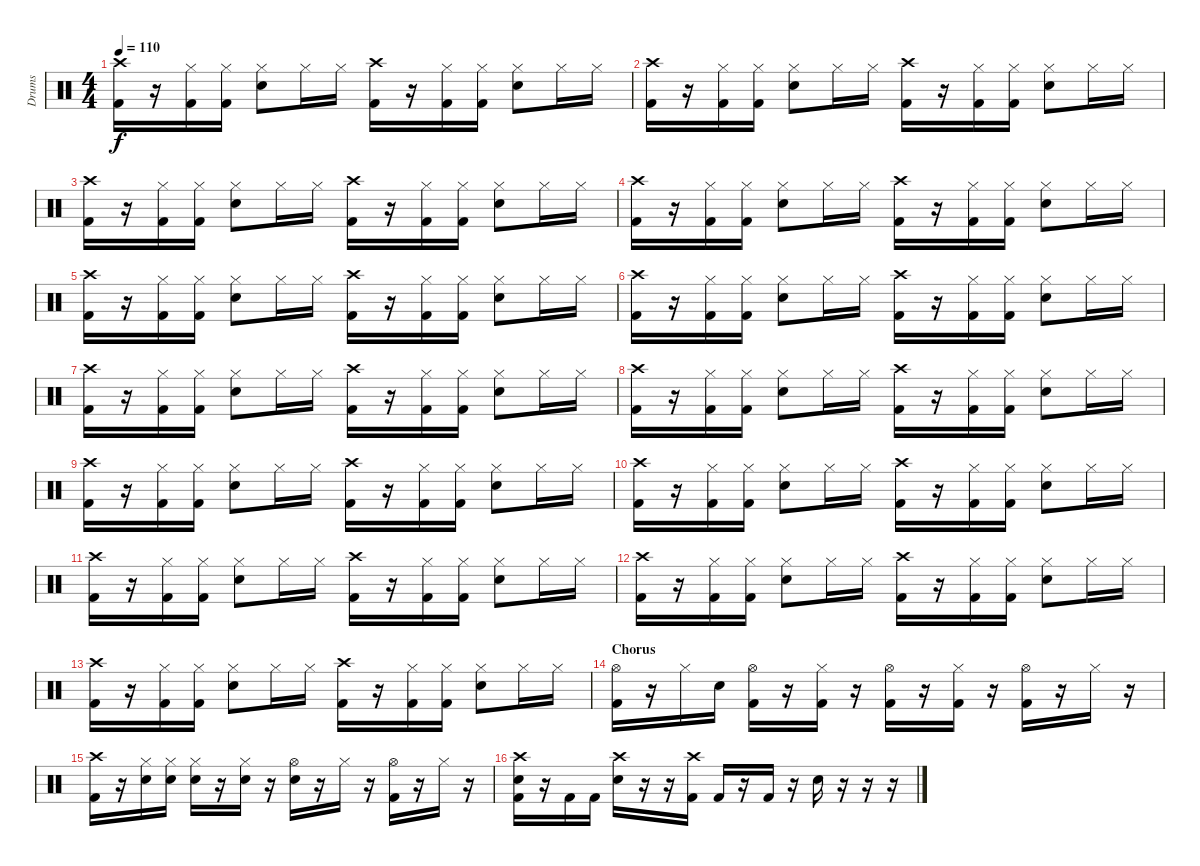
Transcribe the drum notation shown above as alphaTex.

\track ("Drums" "Drums") {instrument percussion}
\staff {score}
\articulation defaults
\ts (4 4)
\tempo 110
\clef neutral
\ks c
("Crash high (hit)" "Kick (hit) 2").16{dy f} r.16 ("Hi-Hat (closed)" "Kick (hit) 2").16 ("Hi-Hat (closed)" "Kick (hit) 2").16 ("Hi-Hat (closed)" "Snare (hit) 2").8 "Hi-Hat (closed)".16 "Hi-Hat (closed)".16 ("Crash high (hit)" "Kick (hit) 2").16 r.16 ("Hi-Hat (closed)" "Kick (hit) 2").16 ("Hi-Hat (closed)" "Kick (hit) 2").16 ("Hi-Hat (closed)" "Snare (hit) 2").8 "Hi-Hat (closed)".16 "Hi-Hat (closed)".16 |
("Crash high (hit)" "Kick (hit) 2").16 r.16 ("Hi-Hat (closed)" "Kick (hit) 2").16 ("Hi-Hat (closed)" "Kick (hit) 2").16 ("Hi-Hat (closed)" "Snare (hit) 2").8 "Hi-Hat (closed)".16 "Hi-Hat (closed)".16 ("Crash high (hit)" "Kick (hit) 2").16 r.16 ("Hi-Hat (closed)" "Kick (hit) 2").16 ("Hi-Hat (closed)" "Kick (hit) 2").16 ("Hi-Hat (closed)" "Snare (hit) 2").8 "Hi-Hat (closed)".16 "Hi-Hat (closed)".16 |
("Crash high (hit)" "Kick (hit) 2").16 r.16 ("Hi-Hat (closed)" "Kick (hit) 2").16 ("Hi-Hat (closed)" "Kick (hit) 2").16 ("Hi-Hat (closed)" "Snare (hit) 2").8 "Hi-Hat (closed)".16 "Hi-Hat (closed)".16 ("Crash high (hit)" "Kick (hit) 2").16 r.16 ("Hi-Hat (closed)" "Kick (hit) 2").16 ("Hi-Hat (closed)" "Kick (hit) 2").16 ("Hi-Hat (closed)" "Snare (hit) 2").8 "Hi-Hat (closed)".16 "Hi-Hat (closed)".16 |
("Crash high (hit)" "Kick (hit) 2").16 r.16 ("Hi-Hat (closed)" "Kick (hit) 2").16 ("Hi-Hat (closed)" "Kick (hit) 2").16 ("Hi-Hat (closed)" "Snare (hit) 2").8 "Hi-Hat (closed)".16 "Hi-Hat (closed)".16 ("Crash high (hit)" "Kick (hit) 2").16 r.16 ("Hi-Hat (closed)" "Kick (hit) 2").16 ("Hi-Hat (closed)" "Kick (hit) 2").16 ("Hi-Hat (closed)" "Snare (hit) 2").8 "Hi-Hat (closed)".16 "Hi-Hat (closed)".16 |
("Crash high (hit)" "Kick (hit) 2").16 r.16 ("Hi-Hat (closed)" "Kick (hit) 2").16 ("Hi-Hat (closed)" "Kick (hit) 2").16 ("Hi-Hat (closed)" "Snare (hit) 2").8 "Hi-Hat (closed)".16 "Hi-Hat (closed)".16 ("Crash high (hit)" "Kick (hit) 2").16 r.16 ("Hi-Hat (closed)" "Kick (hit) 2").16 ("Hi-Hat (closed)" "Kick (hit) 2").16 ("Hi-Hat (closed)" "Snare (hit) 2").8 "Hi-Hat (closed)".16 "Hi-Hat (closed)".16 |
("Crash high (hit)" "Kick (hit) 2").16 r.16 ("Hi-Hat (closed)" "Kick (hit) 2").16 ("Hi-Hat (closed)" "Kick (hit) 2").16 ("Hi-Hat (closed)" "Snare (hit) 2").8 "Hi-Hat (closed)".16 "Hi-Hat (closed)".16 ("Crash high (hit)" "Kick (hit) 2").16 r.16 ("Hi-Hat (closed)" "Kick (hit) 2").16 ("Hi-Hat (closed)" "Kick (hit) 2").16 ("Hi-Hat (closed)" "Snare (hit) 2").8 "Hi-Hat (closed)".16 "Hi-Hat (closed)".16 |
("Crash high (hit)" "Kick (hit) 2").16 r.16 ("Hi-Hat (closed)" "Kick (hit) 2").16 ("Hi-Hat (closed)" "Kick (hit) 2").16 ("Hi-Hat (closed)" "Snare (hit) 2").8 "Hi-Hat (closed)".16 "Hi-Hat (closed)".16 ("Crash high (hit)" "Kick (hit) 2").16 r.16 ("Hi-Hat (closed)" "Kick (hit) 2").16 ("Hi-Hat (closed)" "Kick (hit) 2").16 ("Hi-Hat (closed)" "Snare (hit) 2").8 "Hi-Hat (closed)".16 "Hi-Hat (closed)".16 |
("Crash high (hit)" "Kick (hit) 2").16 r.16 ("Hi-Hat (closed)" "Kick (hit) 2").16 ("Hi-Hat (closed)" "Kick (hit) 2").16 ("Hi-Hat (closed)" "Snare (hit) 2").8 "Hi-Hat (closed)".16 "Hi-Hat (closed)".16 ("Crash high (hit)" "Kick (hit) 2").16 r.16 ("Hi-Hat (closed)" "Kick (hit) 2").16 ("Hi-Hat (closed)" "Kick (hit) 2").16 ("Hi-Hat (closed)" "Snare (hit) 2").8 "Hi-Hat (closed)".16 "Hi-Hat (closed)".16 |
("Crash high (hit)" "Kick (hit) 2").16 r.16 ("Hi-Hat (closed)" "Kick (hit) 2").16 ("Hi-Hat (closed)" "Kick (hit) 2").16 ("Hi-Hat (closed)" "Snare (hit) 2").8 "Hi-Hat (closed)".16 "Hi-Hat (closed)".16 ("Crash high (hit)" "Kick (hit) 2").16 r.16 ("Hi-Hat (closed)" "Kick (hit) 2").16 ("Hi-Hat (closed)" "Kick (hit) 2").16 ("Hi-Hat (closed)" "Snare (hit) 2").8 "Hi-Hat (closed)".16 "Hi-Hat (closed)".16 |
("Crash high (hit)" "Kick (hit) 2").16 r.16 ("Hi-Hat (closed)" "Kick (hit) 2").16 ("Hi-Hat (closed)" "Kick (hit) 2").16 ("Hi-Hat (closed)" "Snare (hit) 2").8 "Hi-Hat (closed)".16 "Hi-Hat (closed)".16 ("Crash high (hit)" "Kick (hit) 2").16 r.16 ("Hi-Hat (closed)" "Kick (hit) 2").16 ("Hi-Hat (closed)" "Kick (hit) 2").16 ("Hi-Hat (closed)" "Snare (hit) 2").8 "Hi-Hat (closed)".16 "Hi-Hat (closed)".16 |
("Crash high (hit)" "Kick (hit) 2").16 r.16 ("Hi-Hat (closed)" "Kick (hit) 2").16 ("Hi-Hat (closed)" "Kick (hit) 2").16 ("Hi-Hat (closed)" "Snare (hit) 2").8 "Hi-Hat (closed)".16 "Hi-Hat (closed)".16 ("Crash high (hit)" "Kick (hit) 2").16 r.16 ("Hi-Hat (closed)" "Kick (hit) 2").16 ("Hi-Hat (closed)" "Kick (hit) 2").16 ("Hi-Hat (closed)" "Snare (hit) 2").8 "Hi-Hat (closed)".16 "Hi-Hat (closed)".16 |
("Crash high (hit)" "Kick (hit) 2").16 r.16 ("Hi-Hat (closed)" "Kick (hit) 2").16 ("Hi-Hat (closed)" "Kick (hit) 2").16 ("Hi-Hat (closed)" "Snare (hit) 2").8 "Hi-Hat (closed)".16 "Hi-Hat (closed)".16 ("Crash high (hit)" "Kick (hit) 2").16 r.16 ("Hi-Hat (closed)" "Kick (hit) 2").16 ("Hi-Hat (closed)" "Kick (hit) 2").16 ("Hi-Hat (closed)" "Snare (hit) 2").8 "Hi-Hat (closed)".16 "Hi-Hat (closed)".16 |
("Crash high (hit)" "Kick (hit) 2").16 r.16 ("Hi-Hat (closed)" "Kick (hit) 2").16 ("Hi-Hat (closed)" "Kick (hit) 2").16 ("Hi-Hat (closed)" "Snare (hit) 2").8 "Hi-Hat (closed)".16 "Hi-Hat (closed)".16 ("Crash high (hit)" "Kick (hit) 2").16 r.16 ("Hi-Hat (closed)" "Kick (hit) 2").16 ("Hi-Hat (closed)" "Kick (hit) 2").16 ("Hi-Hat (closed)" "Snare (hit) 2").8 "Hi-Hat (closed)".16 "Hi-Hat (closed)".16 |
\section ("" "Chorus")
("Hi-Hat (open)" "Kick (hit) 2").16 r.16 "Hi-Hat (closed)".16 "Snare (hit) 2".16 ("Hi-Hat (open)" "Kick (hit) 2").16 r.16 ("Hi-Hat (closed)" "Kick (hit) 2").16 r.16 ("Hi-Hat (open)" "Kick (hit) 2").16 r.16 ("Hi-Hat (closed)" "Kick (hit) 2").16 r.16 ("Hi-Hat (open)" "Kick (hit) 2").16 r.16 "Hi-Hat (closed)".16 r.16 |
("Crash high (hit)" "Kick (hit) 2").16 r.16 ("Hi-Hat (closed)" "Snare (hit) 2").16 ("Hi-Hat (closed)" "Snare (hit) 2").16 ("Hi-Hat (closed)" "Snare (hit) 2").16 r.16 ("Hi-Hat (closed)" "Snare (hit) 2").16 r.16 ("Hi-Hat (open)" "Snare (hit) 2").16 r.16 "Hi-Hat (closed)".16 r.16 ("Hi-Hat (open)" "Kick (hit) 2").16 r.16 "Hi-Hat (closed)".16 r.16 |
("Crash high (hit)" "Snare (hit) 2" "Kick (hit) 2").16 r.16 "Kick (hit) 2".16 "Kick (hit) 2".16 ("Crash high (hit)" "Snare (hit) 2").16 r.16 r.16 ("Crash high (hit)" "Kick (hit) 2").16 "Kick (hit) 2".16 r.16 "Kick (hit) 2".16 r.16 "Snare (hit) 2".16 r.16 r.16 r.16
